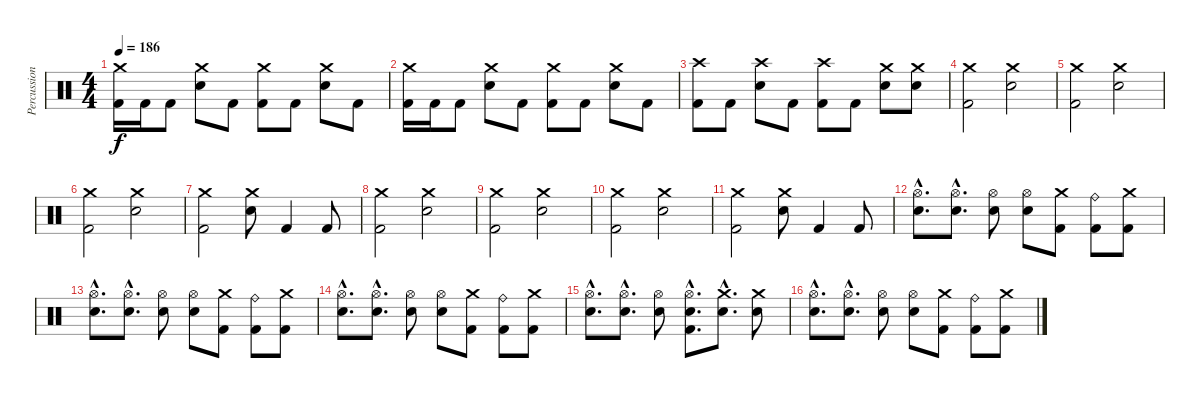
\track ("Percussion" "Percussion") {instrument percussion}
\staff {score}
\articulation defaults
\ts (4 4)
\tempo 186
\clef neutral
\ks c
("Crash medium (hit)" "Kick (hit) 2").16{dy f} "Kick (hit) 2".16 "Kick (hit) 2".8 ("Crash medium (hit)" "Snare (hit) 2").8 "Kick (hit) 2".8 ("Crash medium (hit)" "Kick (hit) 2").8 "Kick (hit) 2".8 ("Crash medium (hit)" "Snare (hit) 2").8 "Kick (hit) 2".8 |
("Crash medium (hit)" "Kick (hit) 2").16 "Kick (hit) 2".16 "Kick (hit) 2".8 ("Crash medium (hit)" "Snare (hit) 2").8 "Kick (hit) 2".8 ("Crash medium (hit)" "Kick (hit) 2").8 "Kick (hit) 2".8 ("Crash medium (hit)" "Snare (hit) 2").8 "Kick (hit) 2".8 |
("Crash high (hit)" "Kick (hit) 2").8 "Kick (hit) 2".8 ("Crash high (hit)" "Snare (hit) 2").8 "Kick (hit) 2".8 ("Crash high (hit)" "Kick (hit) 2").8 "Kick (hit) 2".8 ("Crash medium (hit)" "Snare (hit) 2").8 ("Crash medium (hit)" "Snare (hit) 2").8 |
("Crash medium (hit)" "Kick (hit) 2").2 ("Crash medium (hit)" "Snare (hit) 2").2 |
("Crash medium (hit)" "Kick (hit) 2").2 ("Crash medium (hit)" "Snare (hit) 2").2 |
("Crash medium (hit)" "Kick (hit) 2").2 ("Crash medium (hit)" "Snare (hit) 2").2 |
("Crash medium (hit)" "Kick (hit) 2").2 ("Crash medium (hit)" "Snare (hit) 2").8 "Kick (hit) 2".4 "Kick (hit) 2".8 |
("Crash medium (hit)" "Kick (hit) 2").2 ("Crash medium (hit)" "Snare (hit) 2").2 |
("Crash medium (hit)" "Kick (hit) 2").2 ("Crash medium (hit)" "Snare (hit) 2").2 |
("Crash medium (hit)" "Kick (hit) 2").2 ("Crash medium (hit)" "Snare (hit) 2").2 |
("Crash medium (hit)" "Kick (hit) 2").2 ("Crash medium (hit)" "Snare (hit) 2").8 "Kick (hit) 2".4 "Kick (hit) 2".8 |
("Hi-Hat (open)"{hac} "Snare (hit) 2"{hac}).8{d} ("Hi-Hat (open)"{hac} "Snare (hit) 2"{hac}).8{d} ("Hi-Hat (open)" "Snare (hit) 2").8 ("Hi-Hat (open)" "Snare (hit) 2").8 ("Crash medium (hit)" "Kick (hit) 2").8 ("Ride (bell)" "Kick (hit) 2").8 ("Crash medium (hit)" "Kick (hit) 2").8 |
("Hi-Hat (open)"{hac} "Snare (hit) 2"{hac}).8{d} ("Hi-Hat (open)"{hac} "Snare (hit) 2"{hac}).8{d} ("Hi-Hat (open)" "Snare (hit) 2").8 ("Hi-Hat (open)" "Snare (hit) 2").8 ("Crash medium (hit)" "Kick (hit) 2").8 ("Ride (bell)" "Kick (hit) 2").8 ("Crash medium (hit)" "Kick (hit) 2").8 |
("Hi-Hat (open)"{hac} "Snare (hit) 2"{hac}).8{d} ("Hi-Hat (open)"{hac} "Snare (hit) 2"{hac}).8{d} ("Hi-Hat (open)" "Snare (hit) 2").8 ("Hi-Hat (open)" "Snare (hit) 2").8 ("Crash medium (hit)" "Kick (hit) 2").8 ("Ride (bell)" "Kick (hit) 2").8 ("Crash medium (hit)" "Kick (hit) 2").8 |
("Hi-Hat (open)"{hac} "Snare (hit) 2"{hac}).8{d} ("Hi-Hat (open)"{hac} "Snare (hit) 2"{hac}).8{d} ("Hi-Hat (open)" "Snare (hit) 2").8 ("Hi-Hat (open)"{hac} "Snare (hit) 2"{hac} "Kick (hit) 2"{hac}).8{d} ("Crash medium (hit)"{hac} "Snare (hit) 2"{hac}).8{d} ("Crash medium (hit)" "Snare (hit) 2").8 |
("Hi-Hat (open)"{hac} "Snare (hit) 2"{hac}).8{d} ("Hi-Hat (open)"{hac} "Snare (hit) 2"{hac}).8{d} ("Hi-Hat (open)" "Snare (hit) 2").8 ("Hi-Hat (open)" "Snare (hit) 2").8 ("Crash medium (hit)" "Kick (hit) 2").8 ("Ride (bell)" "Kick (hit) 2").8 ("Crash medium (hit)" "Kick (hit) 2").8
